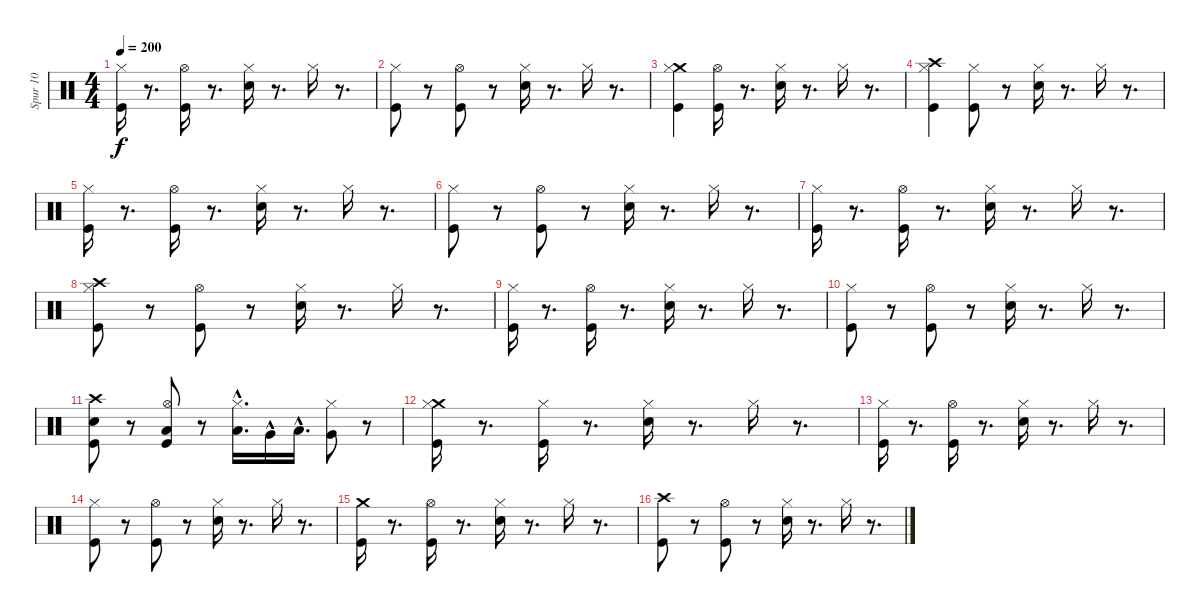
\track ("Spur 10" "Spur 10") {instrument percussion}
\staff {score}
\articulation defaults
\ts (4 4)
\tempo 200
\clef neutral
\ks c
("Kick (hit)" "Hi-Hat (closed)").16{dy f} r.8{d} ("Kick (hit)" "Hi-Hat (open)").16 r.8{d} ("Snare (hit) 2" "Hi-Hat (closed)").16 r.8{d} "Hi-Hat (closed)".16 r.8{d} |
("Hi-Hat (closed)" "Kick (hit)").8 r.8 ("Kick (hit)" "Hi-Hat (open)").8 r.8 ("Snare (hit) 2" "Hi-Hat (closed)").16 r.8{d} "Hi-Hat (closed)".16 r.8{d} |
("Crash medium (hit)" "Kick (hit)" "Hi-Hat (closed)").4 ("Kick (hit)" "Hi-Hat (open)").16 r.8{d} ("Snare (hit) 2" "Hi-Hat (closed)").16 r.8{d} "Hi-Hat (closed)".16 r.8{d} |
("Crash high (hit)" "Hi-Hat (closed)" "Kick (hit)").4 ("Kick (hit)" "Hi-Hat (closed)").8 r.8 ("Snare (hit) 2" "Hi-Hat (closed)").16 r.8{d} "Hi-Hat (closed)".16 r.8{d} |
("Kick (hit)" "Hi-Hat (closed)").16 r.8{d} ("Kick (hit)" "Hi-Hat (open)").16 r.8{d} ("Snare (hit) 2" "Hi-Hat (closed)").16 r.8{d} "Hi-Hat (closed)".16 r.8{d} |
("Hi-Hat (closed)" "Kick (hit)").8 r.8 ("Kick (hit)" "Hi-Hat (open)").8 r.8 ("Snare (hit) 2" "Hi-Hat (closed)").16 r.8{d} "Hi-Hat (closed)".16 r.8{d} |
("Kick (hit)" "Hi-Hat (closed)").16 r.8{d} ("Kick (hit)" "Hi-Hat (open)").16 r.8{d} ("Snare (hit) 2" "Hi-Hat (closed)").16 r.8{d} "Hi-Hat (closed)".16 r.8{d} |
("Crash high (hit)" "Hi-Hat (closed)" "Kick (hit)").8 r.8 ("Kick (hit)" "Hi-Hat (open)").8 r.8 ("Snare (hit) 2" "Hi-Hat (closed)").16 r.8{d} "Hi-Hat (closed)".16 r.8{d} |
("Kick (hit)" "Hi-Hat (closed)").16 r.8{d} ("Kick (hit)" "Hi-Hat (open)").16 r.8{d} ("Snare (hit) 2" "Hi-Hat (closed)").16 r.8{d} "Hi-Hat (closed)".16 r.8{d} |
("Hi-Hat (closed)" "Kick (hit)").8 r.8 ("Kick (hit)" "Hi-Hat (open)").8 r.8 ("Snare (hit) 2" "Hi-Hat (closed)").16 r.8{d} "Hi-Hat (closed)".16 r.8{d} |
("Snare (hit) 2" "Kick (hit)" "Crash high (hit)").8 r.8 ("Low Tom (hit)" "Kick (hit)" "Hi-Hat (open)").8 r.8 ("Low Tom (hit)"{hac} "Hi-Hat (closed)").16{d} "Very Low Tom (hit)"{hac}.16 "Low Tom (hit)"{hac}.16{d} ("Very Low Tom (hit)" "Hi-Hat (closed)").8 r.8 |
("Kick (hit)" "Crash medium (hit)" "Hi-Hat (closed)").16 r.8{d} ("Kick (hit)" "Hi-Hat (closed)").16 r.8{d} ("Snare (hit) 2" "Hi-Hat (closed)").16 r.8{d} "Hi-Hat (closed)".16 r.8{d} |
("Kick (hit)" "Hi-Hat (closed)").16 r.8{d} ("Kick (hit)" "Hi-Hat (open)").16 r.8{d} ("Snare (hit) 2" "Hi-Hat (closed)").16 r.8{d} "Hi-Hat (closed)".16 r.8{d} |
("Hi-Hat (closed)" "Kick (hit)").8 r.8 ("Kick (hit)" "Hi-Hat (open)").8 r.8 ("Snare (hit) 2" "Hi-Hat (closed)").16 r.8{d} "Hi-Hat (closed)".16 r.8{d} |
("Kick (hit)" "Crash medium (hit)").16 r.8{d} ("Kick (hit)" "Hi-Hat (open)").16 r.8{d} ("Snare (hit) 2" "Hi-Hat (closed)").16 r.8{d} "Hi-Hat (closed)".16 r.8{d} |
("Crash high (hit)" "Kick (hit)").8 r.8 ("Kick (hit)" "Hi-Hat (open)").8 r.8 ("Snare (hit) 2" "Hi-Hat (closed)").16 r.8{d} "Hi-Hat (closed)".16 r.8{d}
